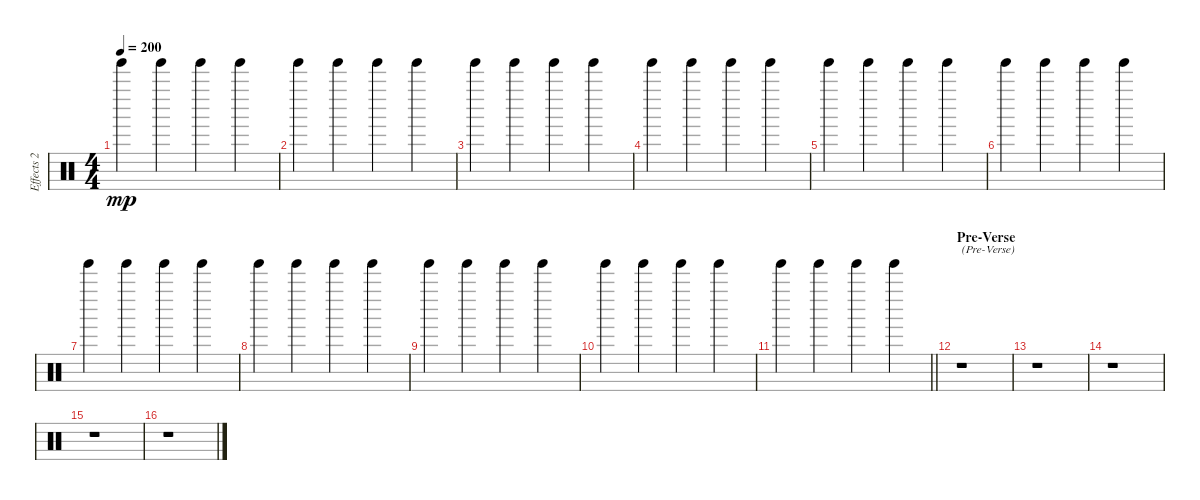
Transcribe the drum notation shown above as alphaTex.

\track ("Effects 2" "Effects 2") {instrument percussion}
\staff {score}
\articulation defaults
\ts (4 4)
\tempo 200
\clef neutral
\ks c "Tinkle Bell (hit)".4{dy mp} "Tinkle Bell (hit)".4 "Tinkle Bell (hit)".4 "Tinkle Bell (hit)".4
|
"Tinkle Bell (hit)".4 "Tinkle Bell (hit)".4 "Tinkle Bell (hit)".4 "Tinkle Bell (hit)".4 |
"Tinkle Bell (hit)".4 "Tinkle Bell (hit)".4 "Tinkle Bell (hit)".4 "Tinkle Bell (hit)".4 |
"Tinkle Bell (hit)".4 "Tinkle Bell (hit)".4 "Tinkle Bell (hit)".4 "Tinkle Bell (hit)".4 |
"Tinkle Bell (hit)".4 "Tinkle Bell (hit)".4 "Tinkle Bell (hit)".4 "Tinkle Bell (hit)".4 |
"Tinkle Bell (hit)".4 "Tinkle Bell (hit)".4 "Tinkle Bell (hit)".4 "Tinkle Bell (hit)".4 |
"Tinkle Bell (hit)".4 "Tinkle Bell (hit)".4 "Tinkle Bell (hit)".4 "Tinkle Bell (hit)".4 |
"Tinkle Bell (hit)".4 "Tinkle Bell (hit)".4 "Tinkle Bell (hit)".4 "Tinkle Bell (hit)".4 |
"Tinkle Bell (hit)".4 "Tinkle Bell (hit)".4 "Tinkle Bell (hit)".4 "Tinkle Bell (hit)".4 |
"Tinkle Bell (hit)".4 "Tinkle Bell (hit)".4 "Tinkle Bell (hit)".4 "Tinkle Bell (hit)".4 |
\barLineRight lightlight "Tinkle Bell (hit)".4 "Tinkle Bell (hit)".4 "Tinkle Bell (hit)".4 "Tinkle Bell (hit)".4
|
\section ("" "Pre-Verse")
r.1{txt "(Pre-Verse)"} |
r.1 |
r.1 |
r.1 |
r.1
